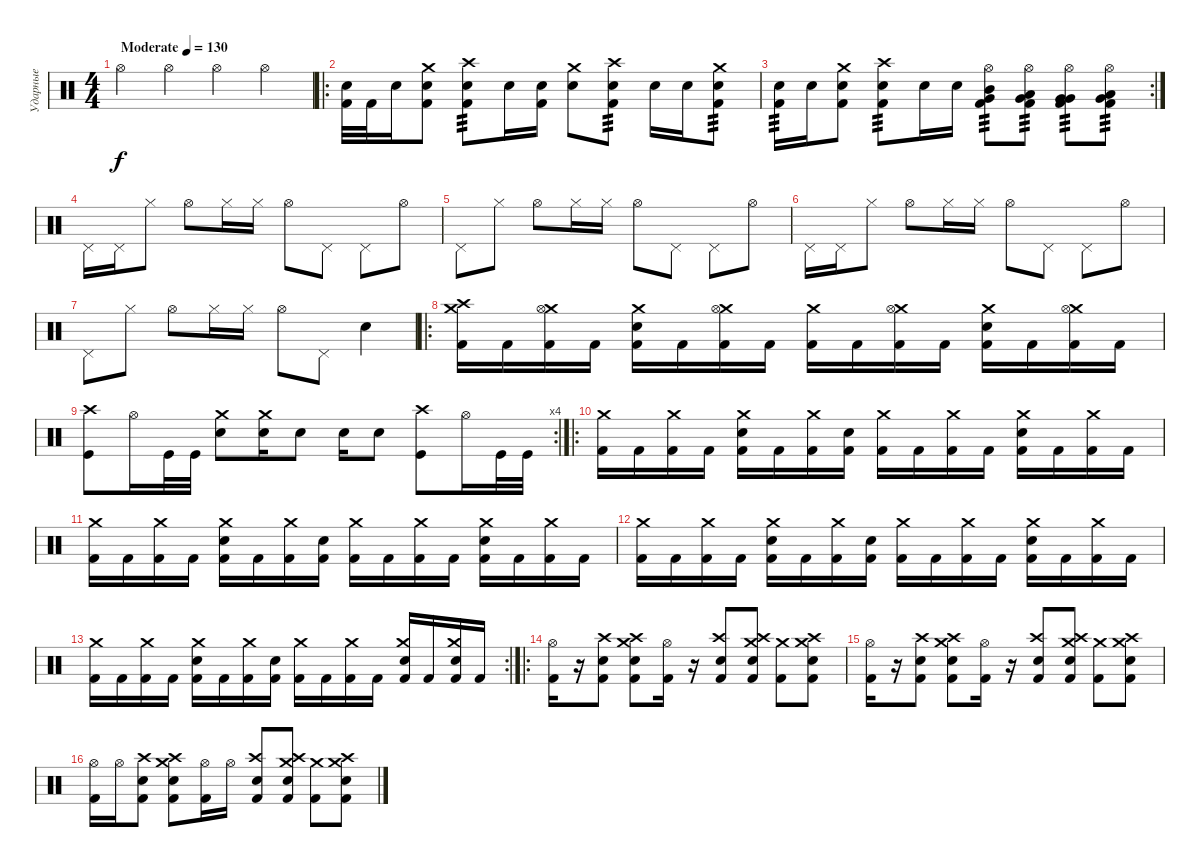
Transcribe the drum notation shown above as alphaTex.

\track ("Ударные" "Ударные") {instrument percussion}
\staff {score}
\articulation defaults
\ts (4 4)
\tempo (130 "Moderate")
\clef neutral
\ks c "Hi-Hat (open)".4{dy f} "Hi-Hat (open)".4 "Hi-Hat (open)".4 "Hi-Hat (open)".4
|
\ro
("Snare (hit) 2" "Kick (hit) 2").32 "Kick (hit) 2".32 "Snare (hit) 2".16 ("Crash medium (hit)" "Snare (hit) 2" "Kick (hit) 2").8 ("Crash high (hit)" "Snare (hit) 2" "Kick (hit) 2").8{tp 3} "Snare (hit) 2".16 ("Snare (hit) 2" "Kick (hit) 2").16 ("Crash medium (hit)" "Snare (hit) 2").8 ("Crash high (hit)" "Snare (hit) 2" "Kick (hit) 2").8{tp 3} "Snare (hit) 2".16 "Snare (hit) 2".16 ("Crash medium (hit)" "Snare (hit) 2" "Kick (hit) 2").8{tp 3} |
\rc 2
("Snare (hit) 2" "Kick (hit) 2").16{tp 3} "Snare (hit) 2".16 ("Crash medium (hit)" "Snare (hit) 2" "Kick (hit) 2").8 ("Crash high (hit)" "Snare (hit) 2" "Kick (hit) 2").8{tp 3} "Snare (hit) 2".16 "Snare (hit) 2".16 ("Hi-Hat (open)" "Mid Tom (hit)" "Very Low Tom (hit)" "Kick (hit) 2").8{tp 3} ("Hi-Hat (open)" "Low Tom (hit)" "Very Low Tom (hit)" "Kick (hit) 2").8{tp 3} ("Hi-Hat (open)" "Very Low Tom (hit)" "Very Low Tom (hit)" "Kick (hit) 2").8{tp 3} ("Hi-Hat (open)" "Low Floor Tom (hit)" "Very Low Tom (hit)" "Kick (hit) 2").8{tp 3} |
"Pedal Hi-Hat (hit)".16 "Pedal Hi-Hat (hit)".16 "Hi-Hat (closed)".8 "Hi-Hat (open)".8 "Hi-Hat (closed)".16 "Hi-Hat (closed)".16 "Hi-Hat (open)".8 "Pedal Hi-Hat (hit)".8 "Pedal Hi-Hat (hit)".8 "Hi-Hat (open)".8 |
"Pedal Hi-Hat (hit)".8 "Hi-Hat (closed)".8 "Hi-Hat (open)".8 "Hi-Hat (closed)".16 "Hi-Hat (closed)".16 "Hi-Hat (open)".8 "Pedal Hi-Hat (hit)".8 "Pedal Hi-Hat (hit)".8 "Hi-Hat (open)".8 |
"Pedal Hi-Hat (hit)".16 "Pedal Hi-Hat (hit)".16 "Hi-Hat (closed)".8 "Hi-Hat (open)".8 "Hi-Hat (closed)".16 "Hi-Hat (closed)".16 "Hi-Hat (open)".8 "Pedal Hi-Hat (hit)".8 "Pedal Hi-Hat (hit)".8 "Hi-Hat (open)".8 |
"Pedal Hi-Hat (hit)".8 "Hi-Hat (closed)".8 "Hi-Hat (open)".8 "Hi-Hat (closed)".16 "Hi-Hat (closed)".16 "Hi-Hat (open)".8 "Pedal Hi-Hat (hit)".8 "Electric Snare (hit)".4 |
\ro
("Crash medium (hit)" "Crash high (hit)" "Kick (hit) 2").16 "Kick (hit) 2".16 ("Crash medium (hit)" "Hi-Hat (open)" "Kick (hit) 2").16 "Kick (hit) 2".16 ("Crash medium (hit)" "Electric Snare (hit)" "Kick (hit) 2").16 "Kick (hit) 2".16 ("Crash medium (hit)" "Hi-Hat (open)" "Kick (hit) 2").16 "Kick (hit) 2".16 ("Crash medium (hit)" "Kick (hit) 2").16 "Kick (hit) 2".16 ("Crash medium (hit)" "Hi-Hat (open)" "Kick (hit) 2").16 "Kick (hit) 2".16 ("Crash medium (hit)" "Electric Snare (hit)" "Kick (hit) 2").16 "Kick (hit) 2".16 ("Crash medium (hit)" "Hi-Hat (open)" "Kick (hit) 2").16 "Kick (hit) 2".16 |
\rc 4
("Crash high (hit)" "Kick (hit)").8 "Hi-Hat (open)".16 "Kick (hit)".32 "Kick (hit)".32 ("Crash medium (hit)" "Electric Snare (hit)").8 ("Crash medium (hit)" "Electric Snare (hit)").16 "Electric Snare (hit)".8 "Electric Snare (hit)".16 "Electric Snare (hit)".8 ("Crash high (hit)" "Kick (hit)").8 "Hi-Hat (open)".16 "Kick (hit)".32 "Kick (hit)".32 |
\ro
("Crash medium (hit)" "Kick (hit) 2").16 "Kick (hit) 2".16 ("Crash medium (hit)" "Kick (hit) 2").16 "Kick (hit) 2".16 ("Crash medium (hit)" "Electric Snare (hit)" "Kick (hit) 2").16 "Kick (hit) 2".16 ("Crash medium (hit)" "Kick (hit) 2").16 ("Electric Snare (hit)" "Kick (hit) 2").16 ("Crash medium (hit)" "Kick (hit) 2").16 "Kick (hit) 2".16 ("Crash medium (hit)" "Kick (hit) 2").16 "Kick (hit) 2".16 ("Crash medium (hit)" "Electric Snare (hit)" "Kick (hit) 2").16 "Kick (hit) 2".16 ("Crash medium (hit)" "Kick (hit) 2").16 "Kick (hit) 2".16 |
("Crash medium (hit)" "Kick (hit) 2").16 "Kick (hit) 2".16 ("Crash medium (hit)" "Kick (hit) 2").16 "Kick (hit) 2".16 ("Crash medium (hit)" "Electric Snare (hit)" "Kick (hit) 2").16 "Kick (hit) 2".16 ("Crash medium (hit)" "Kick (hit) 2").16 ("Electric Snare (hit)" "Kick (hit) 2").16 ("Crash medium (hit)" "Kick (hit) 2").16 "Kick (hit) 2".16 ("Crash medium (hit)" "Kick (hit) 2").16 "Kick (hit) 2".16 ("Crash medium (hit)" "Electric Snare (hit)" "Kick (hit) 2").16 "Kick (hit) 2".16 ("Crash medium (hit)" "Kick (hit) 2").16 "Kick (hit) 2".16 |
("Crash medium (hit)" "Kick (hit) 2").16 "Kick (hit) 2".16 ("Crash medium (hit)" "Kick (hit) 2").16 "Kick (hit) 2".16 ("Crash medium (hit)" "Electric Snare (hit)" "Kick (hit) 2").16 "Kick (hit) 2".16 ("Crash medium (hit)" "Kick (hit) 2").16 ("Electric Snare (hit)" "Kick (hit) 2").16 ("Crash medium (hit)" "Kick (hit) 2").16 "Kick (hit) 2".16 ("Crash medium (hit)" "Kick (hit) 2").16 "Kick (hit) 2".16 ("Crash medium (hit)" "Electric Snare (hit)" "Kick (hit) 2").16 "Kick (hit) 2".16 ("Crash medium (hit)" "Kick (hit) 2").16 "Kick (hit) 2".16 |
\rc 2
("Crash medium (hit)" "Kick (hit) 2").16 "Kick (hit) 2".16 ("Crash medium (hit)" "Kick (hit) 2").16 "Kick (hit) 2".16 ("Crash medium (hit)" "Electric Snare (hit)" "Kick (hit) 2").16 "Kick (hit) 2".16 ("Crash medium (hit)" "Kick (hit) 2").16 ("Electric Snare (hit)" "Kick (hit) 2").16 ("Crash medium (hit)" "Kick (hit) 2").16 "Kick (hit) 2".16 ("Crash medium (hit)" "Kick (hit) 2").16 "Kick (hit) 2".16 ("Crash medium (hit)" "Electric Snare (hit)" "Kick (hit) 2").16 "Kick (hit) 2".16 ("Crash medium (hit)" "Electric Snare (hit)" "Kick (hit) 2").16 "Kick (hit) 2".16 |
\ro
("Hi-Hat (open)" "Kick (hit) 2").16 r.16 ("Crash high (hit)" "Electric Snare (hit)" "Kick (hit) 2").8 ("Crash medium (hit)" "Crash high (hit)" "Electric Snare (hit)" "Kick (hit) 2").8 ("Hi-Hat (open)" "Kick (hit) 2").16 r.16 ("Crash high (hit)" "Electric Snare (hit)" "Kick (hit) 2").8 ("Crash medium (hit)" "Crash high (hit)" "Electric Snare (hit)" "Kick (hit) 2").8 ("Crash medium (hit)" "Kick (hit) 2").8 ("Crash medium (hit)" "Crash high (hit)" "Electric Snare (hit)" "Kick (hit) 2").8 |
("Hi-Hat (open)" "Kick (hit) 2").16 r.16 ("Crash high (hit)" "Electric Snare (hit)" "Kick (hit) 2").8 ("Crash medium (hit)" "Crash high (hit)" "Electric Snare (hit)" "Kick (hit) 2").8 ("Hi-Hat (open)" "Kick (hit) 2").16 r.16 ("Crash high (hit)" "Electric Snare (hit)" "Kick (hit) 2").8 ("Crash medium (hit)" "Crash high (hit)" "Electric Snare (hit)" "Kick (hit) 2").8 ("Crash medium (hit)" "Kick (hit) 2").8 ("Crash medium (hit)" "Crash high (hit)" "Electric Snare (hit)" "Kick (hit) 2").8 |
("Hi-Hat (open)" "Kick (hit) 2").16 "Hi-Hat (open)".16 ("Crash high (hit)" "Electric Snare (hit)" "Kick (hit) 2").8 ("Crash medium (hit)" "Crash high (hit)" "Electric Snare (hit)" "Kick (hit) 2").8 ("Hi-Hat (open)" "Kick (hit) 2").16 "Hi-Hat (open)".16 ("Crash high (hit)" "Electric Snare (hit)" "Kick (hit) 2").8 ("Crash medium (hit)" "Crash high (hit)" "Electric Snare (hit)" "Kick (hit) 2").8 ("Crash medium (hit)" "Kick (hit) 2").8 ("Crash medium (hit)" "Crash high (hit)" "Electric Snare (hit)" "Kick (hit) 2").8
